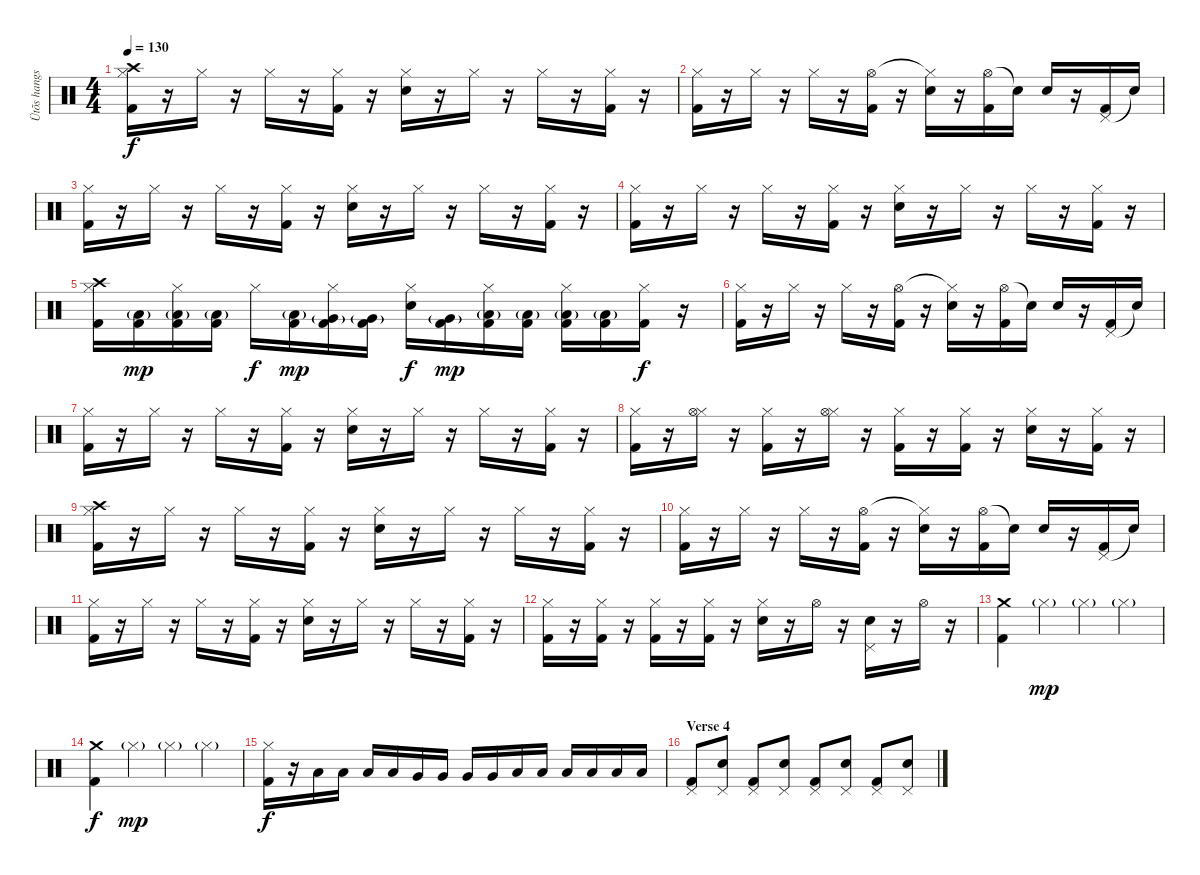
\track ("Ütõs hangszer" "Ütõs hangs") {instrument percussion}
\staff {score}
\articulation defaults
\ts (4 4)
\tempo 130
\clef neutral
\ks c
("Hi-Hat (closed)" "Crash high (hit)" "Kick (hit) 2").16{dy f} r.16 "Hi-Hat (closed)".16 r.16 "Hi-Hat (closed)".16 r.16 ("Hi-Hat (closed)" "Kick (hit) 2").16 r.16 ("Hi-Hat (closed)" "Snare (hit) 2").16 r.16 "Hi-Hat (closed)".16 r.16 "Hi-Hat (closed)".16 r.16 ("Hi-Hat (closed)" "Kick (hit) 2").16 r.16 |
("Hi-Hat (closed)" "Kick (hit) 2").16 r.16 "Hi-Hat (closed)".16 r.16 "Hi-Hat (closed)".16 r.16 ("Hi-Hat (open)" "Kick (hit) 2").16 r.16 ("Hi-Hat (closed)"{t} "Snare (hit) 2").16 r.16 ("Hi-Hat (open)" "Kick (hit) 2").16 "Snare (hit)"{t}.16 "Snare (hit) 2".16 r.16 ("Pedal Hi-Hat (hit)" "Kick (hit) 2").16 "Snare (hit)"{t}.16 |
("Hi-Hat (closed)" "Kick (hit) 2").16 r.16 "Hi-Hat (closed)".16 r.16 "Hi-Hat (closed)".16 r.16 ("Hi-Hat (closed)" "Kick (hit) 2").16 r.16 ("Hi-Hat (closed)" "Snare (hit) 2").16 r.16 "Hi-Hat (closed)".16 r.16 "Hi-Hat (closed)".16 r.16 ("Hi-Hat (closed)" "Kick (hit) 2").16 r.16 |
("Hi-Hat (closed)" "Kick (hit) 2").16 r.16 "Hi-Hat (closed)".16 r.16 "Hi-Hat (closed)".16 r.16 ("Hi-Hat (closed)" "Kick (hit) 2").16 r.16 ("Hi-Hat (closed)" "Snare (hit) 2").16 r.16 "Hi-Hat (closed)".16 r.16 "Hi-Hat (closed)".16 r.16 ("Hi-Hat (closed)" "Kick (hit) 2").16 r.16 |
("Hi-Hat (closed)" "Crash high (hit)" "Kick (hit) 2").16 ("Low Tom (hit)"{g} "Kick (hit) 2").16{dy mp} ("Hi-Hat (closed)" "Low Tom (hit)"{g} "Kick (hit) 2").16 ("Low Tom (hit)"{g} "Kick (hit) 2").16 "Hi-Hat (closed)".16{dy f} ("Low Tom (hit)"{g} "Kick (hit) 2").16{dy mp} ("Hi-Hat (closed)" "Very Low Tom (hit)"{g} "Kick (hit) 2").16 ("Very Low Tom (hit)"{g} "Kick (hit) 2").16 ("Hi-Hat (closed)" "Snare (hit) 2").16{dy f} ("Very Low Tom (hit)"{g} "Kick (hit) 2").16{dy mp} ("Hi-Hat (closed)" "Low Floor Tom (hit)"{g} "Kick (hit) 2").16 ("Low Floor Tom (hit)"{g} "Kick (hit) 2").16 ("Hi-Hat (closed)" "Low Floor Tom (hit)"{g} "Kick (hit) 2").16 ("Low Floor Tom (hit)"{g} "Kick (hit) 2").16 ("Hi-Hat (closed)" "Kick (hit) 2").16{dy f} r.16 |
("Hi-Hat (closed)" "Kick (hit) 2").16 r.16 "Hi-Hat (closed)".16 r.16 "Hi-Hat (closed)".16 r.16 ("Hi-Hat (open)" "Kick (hit) 2").16 r.16 ("Hi-Hat (closed)"{t} "Snare (hit) 2").16 r.16 ("Hi-Hat (open)" "Kick (hit) 2").16 "Snare (hit)"{t}.16 "Snare (hit) 2".16 r.16 ("Pedal Hi-Hat (hit)" "Kick (hit) 2").16 "Snare (hit)"{t}.16 |
("Hi-Hat (closed)" "Kick (hit) 2").16 r.16 "Hi-Hat (closed)".16 r.16 "Hi-Hat (closed)".16 r.16 ("Hi-Hat (closed)" "Kick (hit) 2").16 r.16 ("Hi-Hat (closed)" "Snare (hit) 2").16 r.16 "Hi-Hat (closed)".16 r.16 "Hi-Hat (closed)".16 r.16 ("Hi-Hat (closed)" "Kick (hit) 2").16 r.16 |
("Hi-Hat (closed)" "Kick (hit) 2").16 r.16 ("Hi-Hat (closed)" "Hi-Hat (open)").16 r.16 ("Hi-Hat (closed)" "Kick (hit) 2").16 r.16 ("Hi-Hat (closed)" "Hi-Hat (open)").16 r.16 ("Hi-Hat (closed)" "Kick (hit) 2").16 r.16 ("Hi-Hat (closed)" "Kick (hit) 2").16 r.16 ("Hi-Hat (closed)" "Snare (hit) 2").16 r.16 ("Hi-Hat (closed)" "Kick (hit) 2").16 r.16 |
("Hi-Hat (closed)" "Crash high (hit)" "Kick (hit) 2").16 r.16 "Hi-Hat (closed)".16 r.16 "Hi-Hat (closed)".16 r.16 ("Hi-Hat (closed)" "Kick (hit) 2").16 r.16 ("Hi-Hat (closed)" "Snare (hit) 2").16 r.16 "Hi-Hat (closed)".16 r.16 "Hi-Hat (closed)".16 r.16 ("Hi-Hat (closed)" "Kick (hit) 2").16 r.16 |
("Hi-Hat (closed)" "Kick (hit) 2").16 r.16 "Hi-Hat (closed)".16 r.16 "Hi-Hat (closed)".16 r.16 ("Hi-Hat (open)" "Kick (hit) 2").16 r.16 ("Hi-Hat (closed)"{t} "Snare (hit) 2").16 r.16 ("Hi-Hat (open)" "Kick (hit) 2").16 "Snare (hit)"{t}.16 "Snare (hit) 2".16 r.16 ("Pedal Hi-Hat (hit)" "Kick (hit) 2").16 "Snare (hit)"{t}.16 |
("Hi-Hat (closed)" "Kick (hit) 2").16 r.16 "Hi-Hat (closed)".16 r.16 "Hi-Hat (closed)".16 r.16 ("Hi-Hat (closed)" "Kick (hit) 2").16 r.16 ("Hi-Hat (closed)" "Snare (hit) 2").16 r.16 "Hi-Hat (closed)".16 r.16 "Hi-Hat (closed)".16 r.16 ("Hi-Hat (closed)" "Kick (hit) 2").16 r.16 |
("Hi-Hat (closed)" "Kick (hit) 2").16 r.16 ("Hi-Hat (closed)" "Kick (hit) 2").16 r.16 ("Hi-Hat (closed)" "Kick (hit) 2").16 r.16 ("Hi-Hat (closed)" "Kick (hit) 2").16 r.16 ("Hi-Hat (closed)" "Snare (hit) 2").16 r.16 "Hi-Hat (open)".16 r.16 ("Pedal Hi-Hat (hit)" "Snare (hit) 2").16 r.16 "Hi-Hat (open)".16 r.16 |
("Kick (hit) 2" "Crash medium (hit)").4 "Hi-Hat (closed)"{g}.4{dy mp} "Hi-Hat (closed)"{g}.4 "Hi-Hat (closed)"{g}.4 |
("Crash medium (hit)" "Kick (hit) 2").4{dy f} "Hi-Hat (closed)"{g}.4{dy mp} "Hi-Hat (closed)"{g}.4 "Hi-Hat (closed)"{g}.4 |
("Hi-Hat (closed)" "Kick (hit) 2").16{dy f} r.16 "Low Tom (hit)".16 "Low Tom (hit)".16 "Low Tom (hit)".16 "Low Tom (hit)".16 "Very Low Tom (hit)".16 "Very Low Tom (hit)".16 "Very Low Tom (hit)".16 "Very Low Tom (hit)".16 "Low Floor Tom (hit)".16 "Low Floor Tom (hit)".16 "Low Floor Tom (hit)".16 "Low Floor Tom (hit)".16 "Low Floor Tom (hit)".16 "Low Floor Tom (hit)".16 |
\section ("" "Verse 4")
("Pedal Hi-Hat (hit)" "Kick (hit) 2").8 ("Pedal Hi-Hat (hit)" "Snare (hit) 2").8 ("Pedal Hi-Hat (hit)" "Kick (hit) 2").8 ("Pedal Hi-Hat (hit)" "Snare (hit) 2").8 ("Pedal Hi-Hat (hit)" "Kick (hit) 2").8 ("Pedal Hi-Hat (hit)" "Snare (hit) 2").8 ("Pedal Hi-Hat (hit)" "Kick (hit) 2").8 ("Pedal Hi-Hat (hit)" "Snare (hit) 2").8
